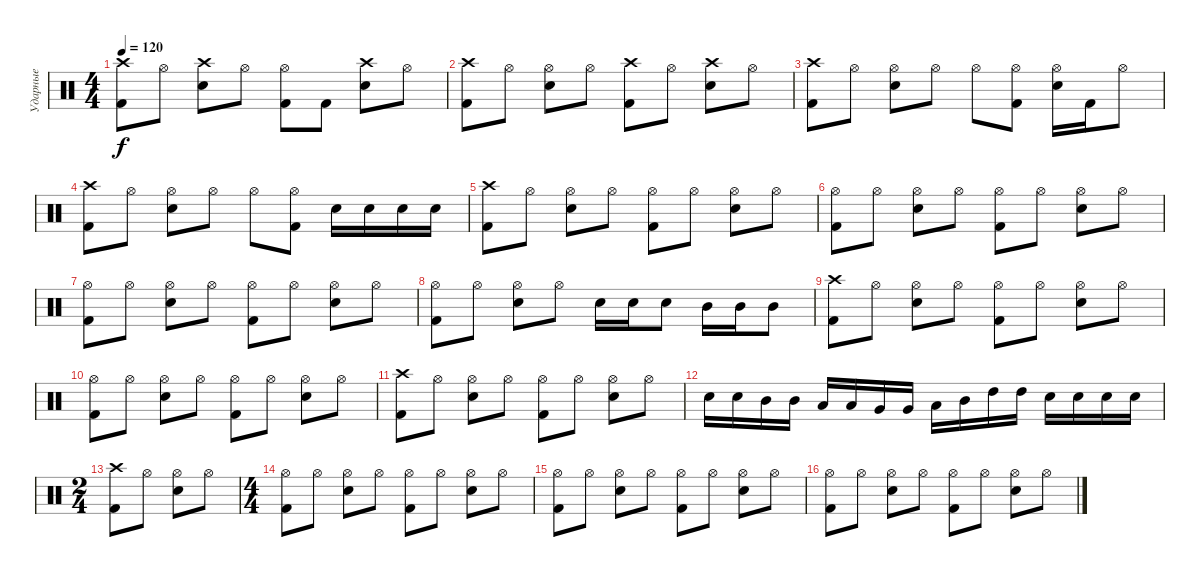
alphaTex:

\track ("Ударные" "Ударные") {instrument percussion}
\staff {score}
\articulation defaults
\ts (4 4)
\tempo 120
\clef neutral
\ks c
("Crash high (hit)" "Kick (hit) 2").8{dy f} "Hi-Hat (open)".8 ("Snare (hit) 2" "Crash high (hit)").8 "Hi-Hat (open)".8 ("Kick (hit) 2" "Hi-Hat (open)").8 "Kick (hit) 2".8 ("Snare (hit) 2" "Crash high (hit)").8 "Hi-Hat (open)".8 |
("Crash high (hit)" "Kick (hit) 2").8 "Hi-Hat (open)".8 ("Snare (hit) 2" "Hi-Hat (open)").8 "Hi-Hat (open)".8 ("Kick (hit) 2" "Crash high (hit)").8 "Hi-Hat (open)".8 ("Snare (hit) 2" "Crash high (hit)").8 "Hi-Hat (open)".8 |
("Crash high (hit)" "Kick (hit) 2").8 "Hi-Hat (open)".8 ("Snare (hit) 2" "Hi-Hat (open)").8 "Hi-Hat (open)".8 "Hi-Hat (open)".8 ("Kick (hit) 2" "Hi-Hat (open)").8 ("Snare (hit) 2" "Hi-Hat (open)").16 "Kick (hit) 2".16 "Hi-Hat (open)".8 |
("Crash high (hit)" "Kick (hit) 2").8 "Hi-Hat (open)".8 ("Snare (hit) 2" "Hi-Hat (open)").8 "Hi-Hat (open)".8 "Hi-Hat (open)".8 ("Kick (hit) 2" "Hi-Hat (open)").8 "Electric Snare (hit)".16 "Electric Snare (hit)".16 "Electric Snare (hit)".16 "Electric Snare (hit)".16 |
("Crash high (hit)" "Kick (hit) 2").8 "Hi-Hat (open)".8 ("Snare (hit) 2" "Hi-Hat (open)").8 "Hi-Hat (open)".8 ("Kick (hit) 2" "Hi-Hat (open)").8 "Hi-Hat (open)".8 ("Snare (hit) 2" "Hi-Hat (open)").8 "Hi-Hat (open)".8 |
("Hi-Hat (open)" "Kick (hit) 2").8 "Hi-Hat (open)".8 ("Snare (hit) 2" "Hi-Hat (open)").8 "Hi-Hat (open)".8 ("Kick (hit) 2" "Hi-Hat (open)").8 "Hi-Hat (open)".8 ("Snare (hit) 2" "Hi-Hat (open)").8 "Hi-Hat (open)".8 |
("Hi-Hat (open)" "Kick (hit) 2").8 "Hi-Hat (open)".8 ("Snare (hit) 2" "Hi-Hat (open)").8 "Hi-Hat (open)".8 ("Kick (hit) 2" "Hi-Hat (open)").8 "Hi-Hat (open)".8 ("Snare (hit) 2" "Hi-Hat (open)").8 "Hi-Hat (open)".8 |
("Hi-Hat (open)" "Kick (hit) 2").8 "Hi-Hat (open)".8 ("Snare (hit) 2" "Hi-Hat (open)").8 "Hi-Hat (open)".8 "Electric Snare (hit)".16 "Electric Snare (hit)".16 "Electric Snare (hit)".8 "Mid Tom (hit)".16 "Mid Tom (hit)".16 "Mid Tom (hit)".8 |
("Crash high (hit)" "Kick (hit) 2").8 "Hi-Hat (open)".8 ("Snare (hit) 2" "Hi-Hat (open)").8 "Hi-Hat (open)".8 ("Kick (hit) 2" "Hi-Hat (open)").8 "Hi-Hat (open)".8 ("Snare (hit) 2" "Hi-Hat (open)").8 "Hi-Hat (open)".8 |
("Hi-Hat (open)" "Kick (hit) 2").8 "Hi-Hat (open)".8 ("Snare (hit) 2" "Hi-Hat (open)").8 "Hi-Hat (open)".8 ("Kick (hit) 2" "Hi-Hat (open)").8 "Hi-Hat (open)".8 ("Snare (hit) 2" "Hi-Hat (open)").8 "Hi-Hat (open)".8 |
("Crash high (hit)" "Kick (hit) 2").8 "Hi-Hat (open)".8 ("Snare (hit) 2" "Hi-Hat (open)").8 "Hi-Hat (open)".8 ("Kick (hit) 2" "Hi-Hat (open)").8 "Hi-Hat (open)".8 ("Snare (hit) 2" "Hi-Hat (open)").8 "Hi-Hat (open)".8 |
"Electric Snare (hit)".16 "Electric Snare (hit)".16 "Mid Tom (hit)".16 "Mid Tom (hit)".16 "Low Tom (hit)".16 "Low Tom (hit)".16 "Very Low Tom (hit)".16 "Very Low Tom (hit)".16 "Low Tom (hit)".16 "Mid Tom (hit)".16 "High Tom (hit)".16 "High Tom (hit)".16 "Electric Snare (hit)".16 "Electric Snare (hit)".16 "Electric Snare (hit)".16 "Electric Snare (hit)".16 |
\ts (2 4)
("Crash high (hit)" "Kick (hit) 2").8 "Hi-Hat (open)".8 ("Snare (hit) 2" "Hi-Hat (open)").8 "Hi-Hat (open)".8 |
\ts (4 4)
("Hi-Hat (open)" "Kick (hit) 2").8 "Hi-Hat (open)".8 ("Snare (hit) 2" "Hi-Hat (open)").8 "Hi-Hat (open)".8 ("Kick (hit) 2" "Hi-Hat (open)").8 "Hi-Hat (open)".8 ("Snare (hit) 2" "Hi-Hat (open)").8 "Hi-Hat (open)".8 |
("Hi-Hat (open)" "Kick (hit) 2").8 "Hi-Hat (open)".8 ("Snare (hit) 2" "Hi-Hat (open)").8 "Hi-Hat (open)".8 ("Kick (hit) 2" "Hi-Hat (open)").8 "Hi-Hat (open)".8 ("Snare (hit) 2" "Hi-Hat (open)").8 "Hi-Hat (open)".8 |
("Hi-Hat (open)" "Kick (hit) 2").8 "Hi-Hat (open)".8 ("Snare (hit) 2" "Hi-Hat (open)").8 "Hi-Hat (open)".8 ("Kick (hit) 2" "Hi-Hat (open)").8 "Hi-Hat (open)".8 ("Snare (hit) 2" "Hi-Hat (open)").8 "Hi-Hat (open)".8
